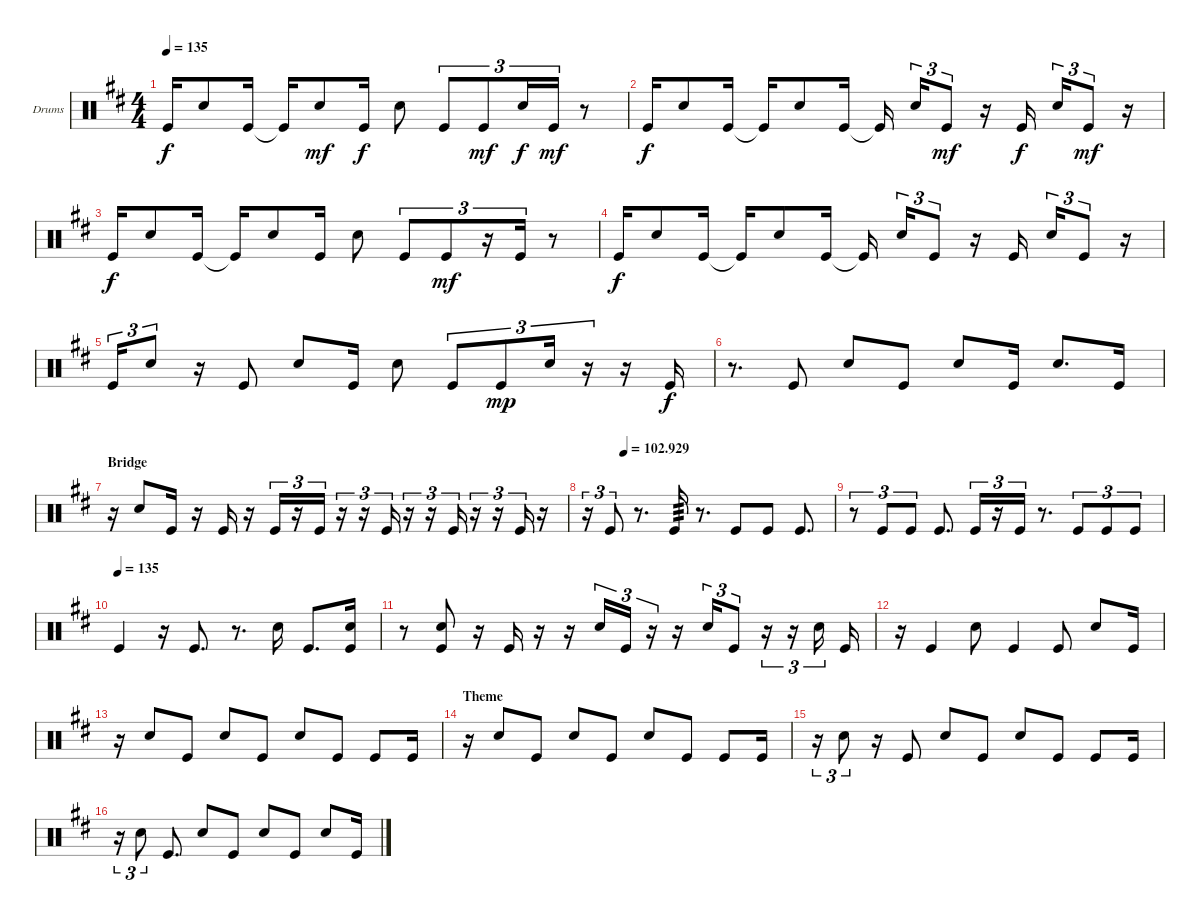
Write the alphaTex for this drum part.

\bracketExtendMode groupsimilarinstruments
\firstSystemTrackNameOrientation horizontal
\otherSystemsTrackNameOrientation horizontal
\track ("Kick" "Drums") {instrument percussion}
\staff {score}
\articulation defaults
\ts (4 4)
\tempo 135
\clef neutral
\ks d "Kick (hit)".16{dy f} "Snare (hit) 2".8 "Kick (hit)".16 "Kick (hit)"{t}.16 "Snare (hit) 2".8{dy mf} "Kick (hit)".16{dy f} "Snare (hit) 2".8 "Kick (hit)".8{tu (3 2)} "Kick (hit)".8{tu (3 2) dy mf} "Snare (hit) 2".16{tu (3 2) dy f} "Kick (hit)".16{tu (3 2) dy mf}
r.8 |
"Kick (hit)".16{dy f} "Snare (hit) 2".8 "Kick (hit)".16 "Kick (hit)"{t}.16 "Snare (hit) 2".8 "Kick (hit)".16 "Kick (hit)"{t}.16 "Snare (hit) 2".16{tu (3 2)} "Kick (hit)".8{tu (3 2) dy mf} r.16 "Kick (hit)".16{dy f} "Snare (hit) 2".16{tu (3 2)} "Kick (hit)".8{tu (3 2) dy mf} r.16 |
"Kick (hit)".16{dy f} "Snare (hit) 2".8 "Kick (hit)".16 "Kick (hit)"{t}.16 "Snare (hit) 2".8 "Kick (hit)".16 "Snare (hit) 2".8 "Kick (hit)".8{tu (3 2)} "Kick (hit)".8{tu (3 2) dy mf} r.16{tu (3 2)} "Kick (hit)".16{tu (3 2)} r.8 |
"Kick (hit)".16{dy f} "Snare (hit) 2".8 "Kick (hit)".16 "Kick (hit)"{t}.16 "Snare (hit) 2".8 "Kick (hit)".16 "Kick (hit)"{t}.16 "Snare (hit) 2".16{tu (3 2)} "Kick (hit)".8{tu (3 2)} r.16 "Kick (hit)".16 "Snare (hit) 2".16{tu (3 2)} "Kick (hit)".8{tu (3 2)} r.16 |
"Kick (hit)".16{tu (3 2)} "Snare (hit) 2".8{tu (3 2)} r.16 "Kick (hit)".8 "Snare (hit) 2".8 "Kick (hit)".16 "Snare (hit) 2".8 "Kick (hit)".8{tu (3 2)} "Kick (hit)".8{tu (3 2) dy mp} "Snare (hit) 2".16{tu (3 2)} r.16{tu (3 2)} r.16 "Kick (hit)".16{dy f} |
r.8{d} "Kick (hit)".8 "Snare (hit) 2".8 "Kick (hit)".8 "Snare (hit) 2".8 "Kick (hit)".16 "Snare (hit) 2".8{d} "Kick (hit)".16 |
\section ("" "Bridge")
\scale
0.463748 r.16 "Snare (hit) 2".8 "Kick (hit)".16 r.16 "Kick (hit)".16 r.16 "Kick (hit)".16{tu (3 2)} r.16{tu (3 2)} "Kick (hit)".16{tu (3 2)} r.16{tu (3 2)} r.16{tu (3 2)} "Kick (hit)".16{tu (3 2)} r.16{tu (3 2)} r.16{tu (3 2)} "Kick (hit)".16{tu (3 2)} r.16{tu (3 2)} r.16{tu (3 2)} "Kick (hit)".16{tu (3 2)} r.16 |
\tempo (102.929 0.15)
\scale
0.535808 r.16{tu (3 2)} "Kick (hit)".8{tu (3 2)} r.8{d} "Kick (hit)".16{tp 3} r.8{d} "Kick (hit)".8 "Kick (hit)".8 "Kick (hit)".8{d} |
r.8{tu (3 2)} "Kick (hit)".8{tu (3 2)} "Kick (hit)".8{tu (3 2)} "Kick (hit)".8{d} "Kick (hit)".16{tu (3 2)} r.16{tu (3 2)} "Kick (hit)".16{tu (3 2)} r.8{d} "Kick (hit)".8{tu (3 2)} "Kick (hit)".8{tu (3 2)} "Kick (hit)".8{tu (3 2)} |
\tempo (135)
"Kick (hit)".4 r.16 "Kick (hit)".8{d} r.8{d} "Snare (hit) 2".16 "Kick (hit)".8{d} ("Kick (hit)" "Snare (hit) 2").16 |
r.8 ("Kick (hit)" "Snare (hit) 2").8 r.16 "Kick (hit)".16 r.16 r.16 "Snare (hit) 2".16{tu (3 2)} "Kick (hit)".16{tu (3 2)} r.16{tu (3 2)} r.16 "Snare (hit) 2".16{tu (3 2)} "Kick (hit)".8{tu (3 2)} r.16{tu (3 2)} r.16{tu (3 2)} "Snare (hit) 2".16{tu (3 2)} "Kick (hit)".16 |
r.16 "Kick (hit)".4 "Snare (hit) 2".8 "Kick (hit)".4 "Kick (hit)".8 "Snare (hit) 2".8 "Kick (hit)".16 |
r.16 "Snare (hit) 2".8 "Kick (hit)".8 "Snare (hit) 2".8 "Kick (hit)".8 "Snare (hit) 2".8 "Kick (hit)".8 "Kick (hit)".8 "Kick (hit)".16 |
\section ("" "Theme")
r.16 "Snare (hit) 2".8 "Kick (hit)".8 "Snare (hit) 2".8 "Kick (hit)".8 "Snare (hit) 2".8 "Kick (hit)".8 "Kick (hit)".8 "Kick (hit)".16 |
\scale
0.517993 r.16{tu (3 2)} "Snare (hit) 2".8{tu (3 2)} r.16 "Kick (hit)".8 "Snare (hit) 2".8 "Kick (hit)".8 "Snare (hit) 2".8 "Kick (hit)".8 "Kick (hit)".8 "Kick (hit)".16 |
\scale
0.481481 r.16{tu (3 2)} "Snare (hit) 2".8{tu (3 2)} "Kick (hit)".8{d} "Snare (hit) 2".8 "Kick (hit)".8 "Snare (hit) 2".8 "Kick (hit)".8 "Snare (hit) 2".8 "Kick (hit)".16
